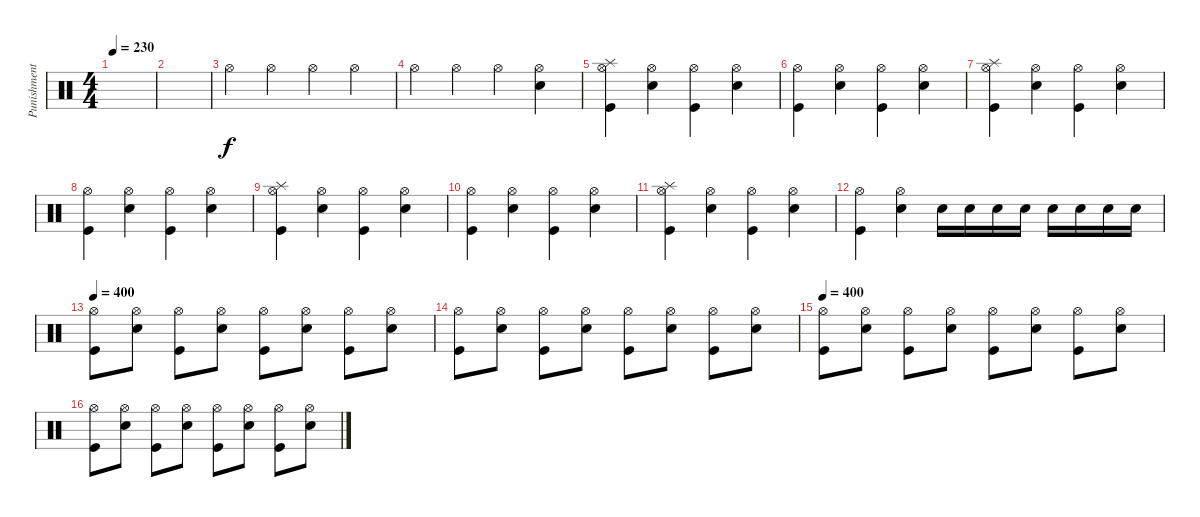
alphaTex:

\track ("Punishment" "Punishment") {instrument percussion}
\staff {score}
\articulation defaults
\ts (4 4)
\tempo 230
\clef neutral
\ks c
|
|
"Hi-Hat (open)".4 "Hi-Hat (open)".4 "Hi-Hat (open)".4 "Hi-Hat (open)".4 |
"Hi-Hat (open)".4 "Hi-Hat (open)".4 "Hi-Hat (open)".4 ("Hi-Hat (open)" "Electric Snare (hit)").4 |
("Hi-Hat (open)" "Kick (hit)" "Splash (hit)").4 ("Hi-Hat (open)" "Electric Snare (hit)").4 ("Hi-Hat (open)" "Kick (hit)").4 ("Hi-Hat (open)" "Electric Snare (hit)").4 |
("Hi-Hat (open)" "Kick (hit)").4 ("Hi-Hat (open)" "Electric Snare (hit)").4 ("Hi-Hat (open)" "Kick (hit)").4 ("Hi-Hat (open)" "Electric Snare (hit)").4 |
("Hi-Hat (open)" "Kick (hit)" "Splash (hit)").4 ("Hi-Hat (open)" "Electric Snare (hit)").4 ("Hi-Hat (open)" "Kick (hit)").4 ("Hi-Hat (open)" "Electric Snare (hit)").4 |
("Hi-Hat (open)" "Kick (hit)").4 ("Hi-Hat (open)" "Electric Snare (hit)").4 ("Hi-Hat (open)" "Kick (hit)").4 ("Hi-Hat (open)" "Electric Snare (hit)").4 |
("Hi-Hat (open)" "Kick (hit)" "Splash (hit)").4 ("Hi-Hat (open)" "Electric Snare (hit)").4 ("Hi-Hat (open)" "Kick (hit)").4 ("Hi-Hat (open)" "Electric Snare (hit)").4 |
("Hi-Hat (open)" "Kick (hit)").4 ("Hi-Hat (open)" "Electric Snare (hit)").4 ("Hi-Hat (open)" "Kick (hit)").4 ("Hi-Hat (open)" "Electric Snare (hit)").4 |
("Hi-Hat (open)" "Kick (hit)" "Splash (hit)").4 ("Hi-Hat (open)" "Electric Snare (hit)").4 ("Hi-Hat (open)" "Kick (hit)").4 ("Hi-Hat (open)" "Electric Snare (hit)").4 |
("Hi-Hat (open)" "Kick (hit)").4 ("Hi-Hat (open)" "Electric Snare (hit)").4 "Electric Snare (hit)".16 "Electric Snare (hit)".16 "Electric Snare (hit)".16 "Electric Snare (hit)".16 "Electric Snare (hit)".16 "Electric Snare (hit)".16 "Electric Snare (hit)".16 "Electric Snare (hit)".16 |
\tempo 400
("Hi-Hat (open)" "Kick (hit)").8 ("Hi-Hat (open)" "Electric Snare (hit)").8 ("Hi-Hat (open)" "Kick (hit)").8 ("Hi-Hat (open)" "Electric Snare (hit)").8 ("Hi-Hat (open)" "Kick (hit)").8 ("Hi-Hat (open)" "Electric Snare (hit)").8 ("Hi-Hat (open)" "Kick (hit)").8 ("Hi-Hat (open)" "Electric Snare (hit)").8 |
("Hi-Hat (open)" "Kick (hit)").8 ("Hi-Hat (open)" "Electric Snare (hit)").8 ("Hi-Hat (open)" "Kick (hit)").8 ("Hi-Hat (open)" "Electric Snare (hit)").8 ("Hi-Hat (open)" "Kick (hit)").8 ("Hi-Hat (open)" "Electric Snare (hit)").8 ("Hi-Hat (open)" "Kick (hit)").8 ("Hi-Hat (open)" "Electric Snare (hit)").8 |
\tempo 400
("Hi-Hat (open)" "Kick (hit)").8 ("Hi-Hat (open)" "Electric Snare (hit)").8 ("Hi-Hat (open)" "Kick (hit)").8 ("Hi-Hat (open)" "Electric Snare (hit)").8 ("Hi-Hat (open)" "Kick (hit)").8 ("Hi-Hat (open)" "Electric Snare (hit)").8 ("Hi-Hat (open)" "Kick (hit)").8 ("Hi-Hat (open)" "Electric Snare (hit)").8 |
("Hi-Hat (open)" "Kick (hit)").8 ("Hi-Hat (open)" "Electric Snare (hit)").8 ("Hi-Hat (open)" "Kick (hit)").8 ("Hi-Hat (open)" "Electric Snare (hit)").8 ("Hi-Hat (open)" "Kick (hit)").8 ("Hi-Hat (open)" "Electric Snare (hit)").8 ("Hi-Hat (open)" "Kick (hit)").8 ("Hi-Hat (open)" "Electric Snare (hit)").8
